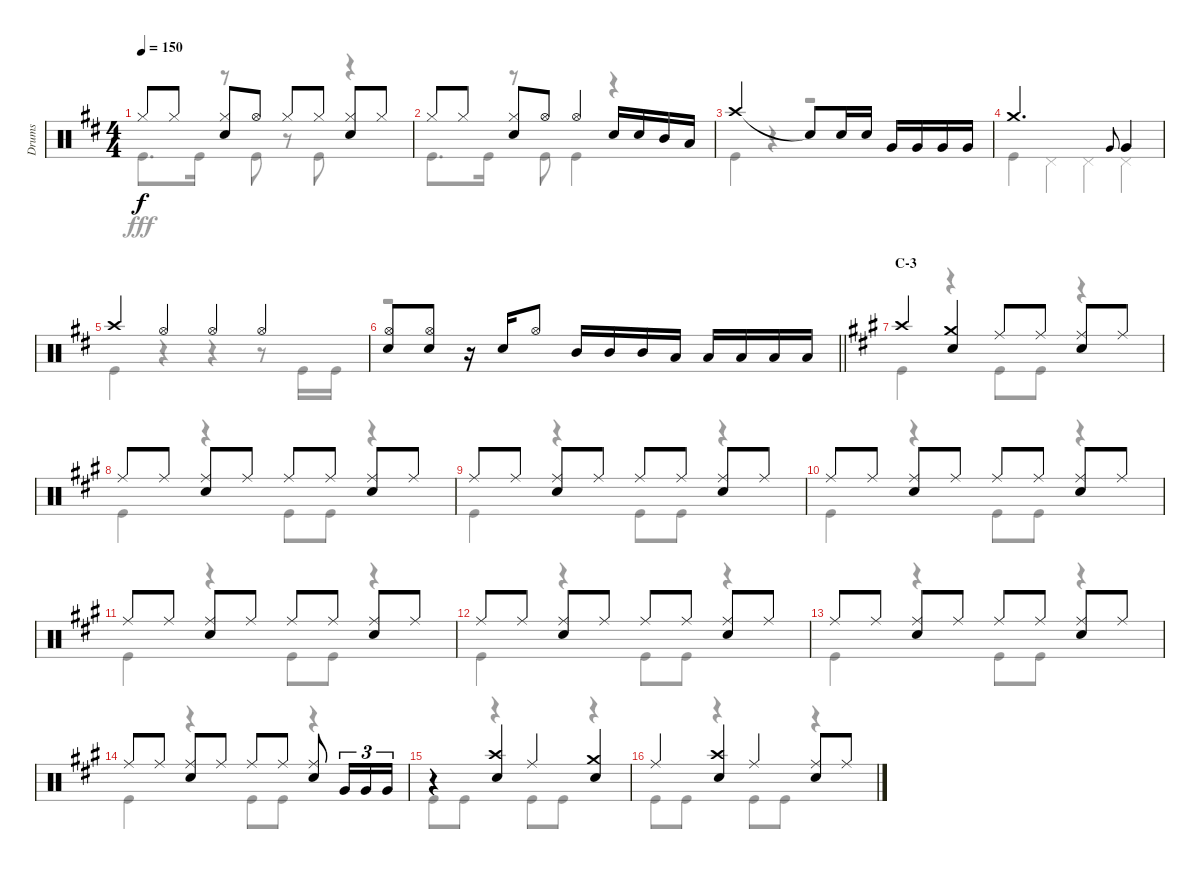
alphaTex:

\track ("Drums" "Drums") {instrument percussion}
\staff {score}
\articulation defaults
\voice
\ts (4 4)
\tempo 150
\clef neutral
\ks d "Hi-Hat (closed)".8{dy f} "Hi-Hat (closed)".8
("Hi-Hat (closed)" "Snare (hit) 2").8 "Hi-Hat (open)".8 "Hi-Hat (closed)".8 "Hi-Hat (closed)".8 ("Hi-Hat (closed)" "Snare (hit) 2").8 "Hi-Hat (closed)".8 |
"Hi-Hat (closed)".8 "Hi-Hat (closed)".8 ("Hi-Hat (closed)" "Snare (hit) 2").8 "Hi-Hat (open)".8 "Hi-Hat (open)".4 "Snare (hit) 2".16 "Snare (hit) 2".16 "Mid Tom (hit)".16 "Low Tom (hit)".16 |
"Crash high (hit)".2 "Snare (hit)"{t}.8 "Snare (hit) 2".16 "Snare (hit) 2".16 "Very Low Tom (hit)".16 "Very Low Tom (hit)".16 "Very Low Tom (hit)".16 "Very Low Tom (hit)".16 |
"Crash medium (hit)".2{d} "Very Low Tom (hit)".8{gr onbeat} "Very Low Tom (hit)".4 |
"Crash high (hit)".4 "Hi-Hat (open)".4 "Hi-Hat (open)".4 "Hi-Hat (open)".4 |
\barLineRight lightlight
("Hi-Hat (open)" "Snare (hit) 2").8 ("Hi-Hat (open)" "Snare (hit) 2").8 r.16 "Snare (hit) 2".16 "Hi-Hat (open)".8 "Mid Tom (hit)".16 "Mid Tom (hit)".16 "Mid Tom (hit)".16 "Low Tom (hit)".16 "Low Tom (hit)".16 "Low Tom (hit)".16 "Low Tom (hit)".16 "Low Tom (hit)".16 |
\section ("" "C-3")
\ks a "Crash high (hit)".4
("Crash medium (hit)" "Snare (hit) 2").4 "Ride (middle)".8 "Ride (middle)".8 ("Ride (middle)" "Snare (hit) 2").8 "Ride (middle)".8 |
"Ride (middle)".8 "Ride (middle)".8 ("Ride (middle)" "Snare (hit) 2").8 "Ride (middle)".8 "Ride (middle)".8 "Ride (middle)".8 ("Ride (middle)" "Snare (hit) 2").8 "Ride (middle)".8 |
"Ride (middle)".8 "Ride (middle)".8 ("Ride (middle)" "Snare (hit) 2").8 "Ride (middle)".8 "Ride (middle)".8 "Ride (middle)".8 ("Ride (middle)" "Snare (hit) 2").8 "Ride (middle)".8 |
"Ride (middle)".8 "Ride (middle)".8 ("Ride (middle)" "Snare (hit) 2").8 "Ride (middle)".8 "Ride (middle)".8 "Ride (middle)".8 ("Ride (middle)" "Snare (hit) 2").8 "Ride (middle)".8 |
"Ride (middle)".8 "Ride (middle)".8 ("Ride (middle)" "Snare (hit) 2").8 "Ride (middle)".8 "Ride (middle)".8 "Ride (middle)".8 ("Ride (middle)" "Snare (hit) 2").8 "Ride (middle)".8 |
"Ride (middle)".8 "Ride (middle)".8 ("Ride (middle)" "Snare (hit) 2").8 "Ride (middle)".8 "Ride (middle)".8 "Ride (middle)".8 ("Ride (middle)" "Snare (hit) 2").8 "Ride (middle)".8 |
"Ride (middle)".8 "Ride (middle)".8 ("Ride (middle)" "Snare (hit) 2").8 "Ride (middle)".8 "Ride (middle)".8 "Ride (middle)".8 ("Ride (middle)" "Snare (hit) 2").8 "Ride (middle)".8 |
"Ride (middle)".8 "Ride (middle)".8 ("Ride (middle)" "Snare (hit) 2").8 "Ride (middle)".8 "Ride (middle)".8 "Ride (middle)".8 ("Ride (middle)" "Snare (hit) 2").8 "Very Low Tom (hit)".16{tu (3 2)} "Very Low Tom (hit)".16{tu (3 2)} "Very Low Tom (hit)".16{tu (3 2)} |
r.4 ("Crash high (hit)" "Snare (hit) 2").4 "Ride (middle)".4 ("Crash medium (hit)" "Snare (hit) 2").4 |
"Ride (middle)".4 ("Crash high (hit)" "Snare (hit) 2").4 "Ride (middle)".4 ("Ride (middle)" "Snare (hit) 2").8 "Ride (middle)".8
\voice
\clef neutral
\ottava regular
\simile none
\ks d "Kick (hit)".8{d dy fff} "Kick (hit)".16
r.8 "Kick (hit)".8 r.8 "Kick (hit)".8 r.4 |
"Kick (hit)".8{d} "Kick (hit)".16 r.8 "Kick (hit)".8 "Kick (hit)".4 r.4 |
"Kick (hit)".4 r.4 r.2 |
"Kick (hit)".4 "Pedal Hi-Hat (hit)".4 "Pedal Hi-Hat (hit)".4 "Pedal Hi-Hat (hit)".4 |
"Kick (hit)".4 r.4 r.4 r.8 "Kick (hit)".16 "Kick (hit)".16 |
\barLineRight lightlight
r.1 |
\ks a "Kick (hit)".4
r.4 "Kick (hit)".8 "Kick (hit)".8 r.4 |
"Kick (hit)".4 r.4 "Kick (hit)".8 "Kick (hit)".8 r.4 |
"Kick (hit)".4 r.4 "Kick (hit)".8 "Kick (hit)".8 r.4 |
"Kick (hit)".4 r.4 "Kick (hit)".8 "Kick (hit)".8 r.4 |
"Kick (hit)".4 r.4 "Kick (hit)".8 "Kick (hit)".8 r.4 |
"Kick (hit)".4 r.4 "Kick (hit)".8 "Kick (hit)".8 r.4 |
"Kick (hit)".4 r.4 "Kick (hit)".8 "Kick (hit)".8 r.4 |
"Kick (hit)".4 r.4 "Kick (hit)".8 "Kick (hit)".8 r.4 |
"Kick (hit)".8 "Kick (hit)".8 r.4 "Kick (hit)".8 "Kick (hit)".8 r.4 |
"Kick (hit)".8 "Kick (hit)".8 r.4 "Kick (hit)".8 "Kick (hit)".8 r.4
